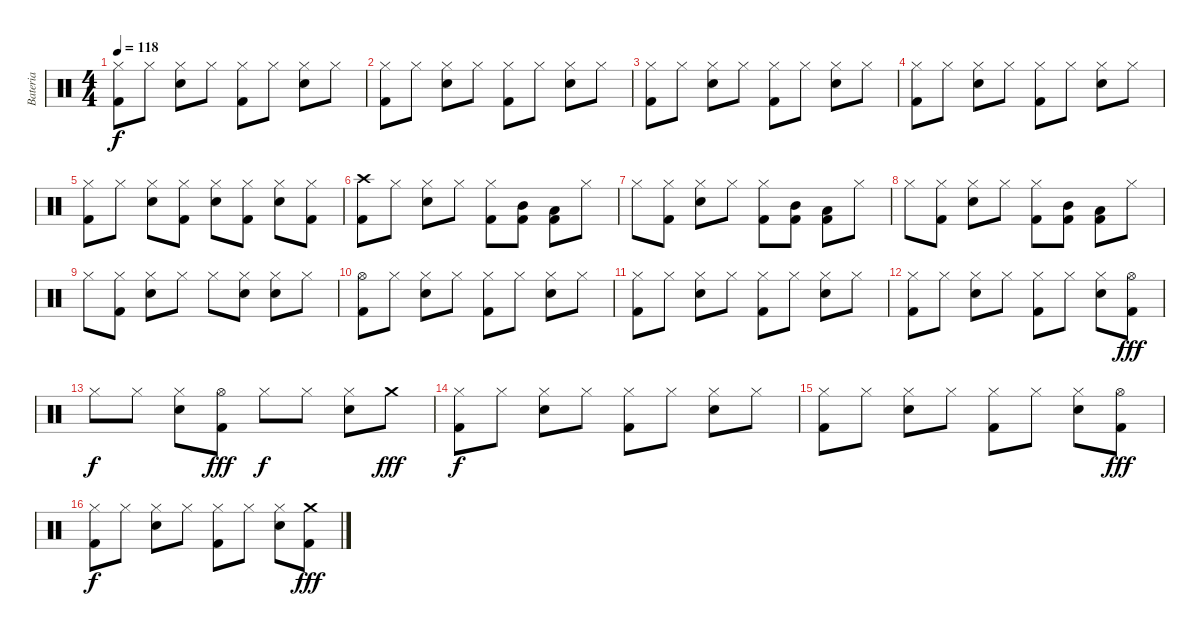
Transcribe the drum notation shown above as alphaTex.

\track ("Bateria" "Bateria") {instrument percussion}
\staff {score}
\articulation defaults
\ts (4 4)
\tempo 118
\clef neutral
\ks c
("Kick (hit) 2" "Hi-Hat (closed)").8{dy f} "Hi-Hat (closed)".8 ("Electric Snare (hit)" "Hi-Hat (closed)").8 "Hi-Hat (closed)".8 ("Kick (hit) 2" "Hi-Hat (closed)").8 "Hi-Hat (closed)".8 ("Electric Snare (hit)" "Hi-Hat (closed)").8 "Hi-Hat (closed)".8 |
("Kick (hit) 2" "Hi-Hat (closed)").8 "Hi-Hat (closed)".8 ("Electric Snare (hit)" "Hi-Hat (closed)").8 "Hi-Hat (closed)".8 ("Kick (hit) 2" "Hi-Hat (closed)").8 "Hi-Hat (closed)".8 ("Electric Snare (hit)" "Hi-Hat (closed)").8 "Hi-Hat (closed)".8 |
("Kick (hit) 2" "Hi-Hat (closed)").8 "Hi-Hat (closed)".8 ("Electric Snare (hit)" "Hi-Hat (closed)").8 "Hi-Hat (closed)".8 ("Kick (hit) 2" "Hi-Hat (closed)").8 "Hi-Hat (closed)".8 ("Electric Snare (hit)" "Hi-Hat (closed)").8 "Hi-Hat (closed)".8 |
("Kick (hit) 2" "Hi-Hat (closed)").8 "Hi-Hat (closed)".8 ("Electric Snare (hit)" "Hi-Hat (closed)").8 "Hi-Hat (closed)".8 ("Kick (hit) 2" "Hi-Hat (closed)").8 "Hi-Hat (closed)".8 ("Electric Snare (hit)" "Hi-Hat (closed)").8 "Hi-Hat (closed)".8 |
("Kick (hit) 2" "Hi-Hat (closed)").8 "Hi-Hat (closed)".8 ("Electric Snare (hit)" "Hi-Hat (closed)").8 ("Kick (hit) 2" "Hi-Hat (closed)").8 ("Electric Snare (hit)" "Hi-Hat (closed)").8 ("Kick (hit) 2" "Hi-Hat (closed)").8 ("Electric Snare (hit)" "Hi-Hat (closed)").8 ("Kick (hit) 2" "Hi-Hat (closed)").8 |
("Kick (hit) 2" "Crash high (hit)").8 "Hi-Hat (closed)".8 ("Hi-Hat (closed)" "Electric Snare (hit)").8 "Hi-Hat (closed)".8 ("Hi-Hat (closed)" "Kick (hit) 2").8 ("Mid Tom (hit)" "Kick (hit) 2").8 ("Low Tom (hit)" "Kick (hit) 2").8 "Hi-Hat (closed)".8 |
"Hi-Hat (closed)".8 ("Hi-Hat (closed)" "Kick (hit) 2").8 ("Hi-Hat (closed)" "Electric Snare (hit)").8 "Hi-Hat (closed)".8 ("Hi-Hat (closed)" "Kick (hit) 2").8 ("Mid Tom (hit)" "Kick (hit) 2").8 ("Low Tom (hit)" "Kick (hit) 2").8 "Hi-Hat (closed)".8 |
"Hi-Hat (closed)".8 ("Hi-Hat (closed)" "Kick (hit) 2").8 ("Hi-Hat (closed)" "Electric Snare (hit)").8 "Hi-Hat (closed)".8 ("Hi-Hat (closed)" "Kick (hit) 2").8 ("Mid Tom (hit)" "Kick (hit) 2").8 ("Low Tom (hit)" "Kick (hit) 2").8 "Hi-Hat (closed)".8 |
"Hi-Hat (closed)".8 ("Hi-Hat (closed)" "Kick (hit) 2").8 ("Hi-Hat (closed)" "Electric Snare (hit)").8 "Hi-Hat (closed)".8 "Hi-Hat (closed)".8 ("Hi-Hat (closed)" "Electric Snare (hit)").8 ("Hi-Hat (closed)" "Electric Snare (hit)").8 "Hi-Hat (closed)".8 |
("Kick (hit) 2" "Hi-Hat (open)").8 "Hi-Hat (closed)".8 ("Electric Snare (hit)" "Hi-Hat (closed)").8 "Hi-Hat (closed)".8 ("Kick (hit) 2" "Hi-Hat (closed)").8 "Hi-Hat (closed)".8 ("Electric Snare (hit)" "Hi-Hat (closed)").8 "Hi-Hat (closed)".8 |
("Kick (hit) 2" "Hi-Hat (closed)").8 "Hi-Hat (closed)".8 ("Electric Snare (hit)" "Hi-Hat (closed)").8 "Hi-Hat (closed)".8 ("Kick (hit) 2" "Hi-Hat (closed)").8 "Hi-Hat (closed)".8 ("Electric Snare (hit)" "Hi-Hat (closed)").8 "Hi-Hat (closed)".8 |
("Kick (hit) 2" "Hi-Hat (closed)").8 "Hi-Hat (closed)".8 ("Electric Snare (hit)" "Hi-Hat (closed)").8 "Hi-Hat (closed)".8 ("Kick (hit) 2" "Hi-Hat (closed)").8 "Hi-Hat (closed)".8 ("Electric Snare (hit)" "Hi-Hat (closed)").8 ("Kick (hit) 2" "Hi-Hat (open)").8{dy fff} |
"Hi-Hat (closed)".8{dy f} "Hi-Hat (closed)".8 ("Electric Snare (hit)" "Hi-Hat (closed)").8 ("Kick (hit) 2" "Hi-Hat (open)").8{dy fff} "Hi-Hat (closed)".8{dy f} "Hi-Hat (closed)".8 ("Electric Snare (hit)" "Hi-Hat (closed)").8 "Crash medium (hit)".8{dy fff} |
("Kick (hit) 2" "Hi-Hat (closed)").8{dy f} "Hi-Hat (closed)".8 ("Electric Snare (hit)" "Hi-Hat (closed)").8 "Hi-Hat (closed)".8 ("Kick (hit) 2" "Hi-Hat (closed)").8 "Hi-Hat (closed)".8 ("Electric Snare (hit)" "Hi-Hat (closed)").8 "Hi-Hat (closed)".8 |
("Kick (hit) 2" "Hi-Hat (closed)").8 "Hi-Hat (closed)".8 ("Electric Snare (hit)" "Hi-Hat (closed)").8 "Hi-Hat (closed)".8 ("Kick (hit) 2" "Hi-Hat (closed)").8 "Hi-Hat (closed)".8 ("Electric Snare (hit)" "Hi-Hat (closed)").8 ("Kick (hit) 2" "Hi-Hat (open)").8{dy fff} |
("Kick (hit) 2" "Hi-Hat (closed)").8{dy f} "Hi-Hat (closed)".8 ("Electric Snare (hit)" "Hi-Hat (closed)").8 "Hi-Hat (closed)".8 ("Kick (hit) 2" "Hi-Hat (closed)").8 "Hi-Hat (closed)".8 ("Electric Snare (hit)" "Hi-Hat (closed)").8 ("Crash medium (hit)" "Kick (hit) 2").8{dy fff}
